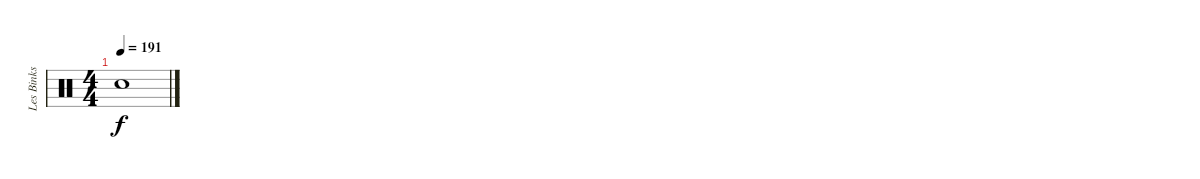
\track ("Les Binks" "Les Binks") {instrument percussion}
\staff {score}
\articulation defaults
\ts (4 4)
\tempo 191
\clef neutral
\ks c "Snare (hit)"{t}.1{dy f}
